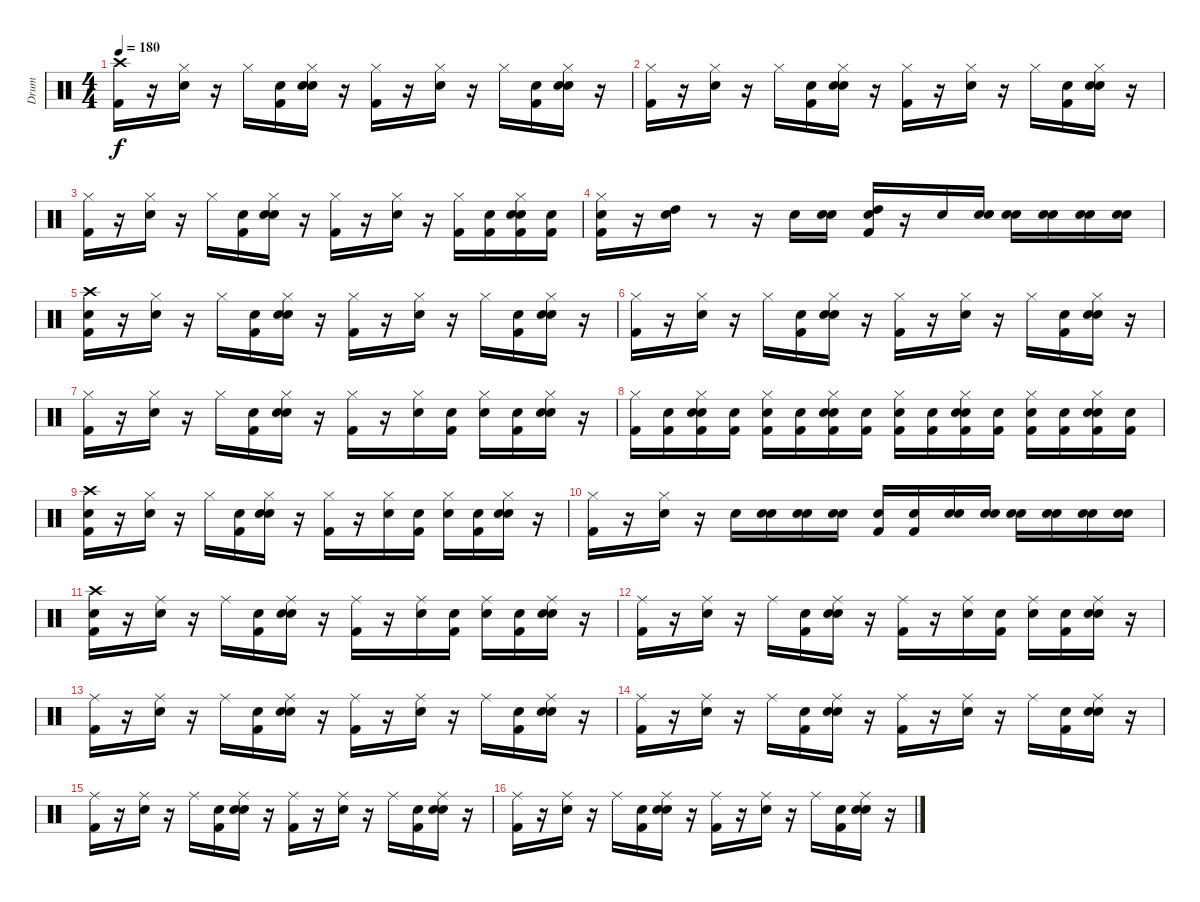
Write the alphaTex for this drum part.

\track ("Drum" "Drum") {instrument percussion}
\staff {score}
\articulation defaults
\ts (4 4)
\tempo 180
\clef neutral
\ks c
("Kick (hit) 2" "Crash high (hit)").16{dy f} r.16 ("Snare (hit) 2" "Hi-Hat (closed)").16 r.16 "Hi-Hat (closed)".16 ("Snare (hit)" "Kick (hit) 2").16 ("Snare (hit)" "Snare (hit) 2" "Hi-Hat (closed)").16 r.16 ("Kick (hit) 2" "Hi-Hat (closed)").16 r.16 ("Snare (hit) 2" "Hi-Hat (closed)").16 r.16 "Hi-Hat (closed)".16 ("Snare (hit)" "Kick (hit) 2").16 ("Snare (hit)" "Snare (hit) 2" "Hi-Hat (closed)").16 r.16 |
("Kick (hit) 2" "Hi-Hat (closed)").16 r.16 ("Snare (hit) 2" "Hi-Hat (closed)").16 r.16 "Hi-Hat (closed)".16 ("Snare (hit)" "Kick (hit) 2").16 ("Snare (hit)" "Snare (hit) 2" "Hi-Hat (closed)").16 r.16 ("Kick (hit) 2" "Hi-Hat (closed)").16 r.16 ("Snare (hit) 2" "Hi-Hat (closed)").16 r.16 "Hi-Hat (closed)".16 ("Snare (hit)" "Kick (hit) 2").16 ("Snare (hit)" "Snare (hit) 2" "Hi-Hat (closed)").16 r.16 |
("Kick (hit) 2" "Hi-Hat (closed)").16 r.16 ("Snare (hit) 2" "Hi-Hat (closed)").16 r.16 "Hi-Hat (closed)".16 ("Snare (hit)" "Kick (hit) 2").16 ("Snare (hit)" "Snare (hit) 2" "Hi-Hat (closed)").16 r.16 ("Kick (hit) 2" "Hi-Hat (closed)").16 r.16 ("Snare (hit) 2" "Hi-Hat (closed)").16 r.16 ("Kick (hit) 2" "Hi-Hat (closed)").16 ("Snare (hit)" "Kick (hit) 2").16 ("Snare (hit)" "Kick (hit) 2" "Snare (hit) 2" "Hi-Hat (closed)").16 ("Snare (hit)" "Kick (hit) 2").16 |
("Snare (hit)" "Kick (hit) 2" "Hi-Hat (closed)").16 r.16 ("Snare (hit) 2" "High Tom (hit)").16 r.8 r.16 "Snare (hit) 2".16 ("Snare (hit)" "Snare (hit) 2").16 ("Snare (hit)" "High Tom (hit)" "Kick (hit) 2").16 r.16 "Snare (hit) 2".16 ("Snare (hit)" "Snare (hit) 2").16 ("Snare (hit)" "Snare (hit) 2").16 ("Snare (hit)" "Snare (hit) 2").16 ("Snare (hit)" "Snare (hit) 2").16 ("Snare (hit)" "Snare (hit) 2").16 |
("Snare (hit)" "Kick (hit) 2" "Crash high (hit)").16 r.16 ("Snare (hit) 2" "Hi-Hat (closed)").16 r.16 "Hi-Hat (closed)".16 ("Snare (hit)" "Kick (hit) 2").16 ("Snare (hit)" "Snare (hit) 2" "Hi-Hat (closed)").16 r.16 ("Kick (hit) 2" "Hi-Hat (closed)").16 r.16 ("Snare (hit) 2" "Hi-Hat (closed)").16 r.16 "Hi-Hat (closed)".16 ("Snare (hit)" "Kick (hit) 2").16 ("Snare (hit)" "Snare (hit) 2" "Hi-Hat (closed)").16 r.16 |
("Kick (hit) 2" "Hi-Hat (closed)").16 r.16 ("Snare (hit) 2" "Hi-Hat (closed)").16 r.16 "Hi-Hat (closed)".16 ("Snare (hit)" "Kick (hit) 2").16 ("Snare (hit)" "Snare (hit) 2" "Hi-Hat (closed)").16 r.16 ("Kick (hit) 2" "Hi-Hat (closed)").16 r.16 ("Snare (hit) 2" "Hi-Hat (closed)").16 r.16 "Hi-Hat (closed)".16 ("Snare (hit)" "Kick (hit) 2").16 ("Snare (hit)" "Snare (hit) 2" "Hi-Hat (closed)").16 r.16 |
("Kick (hit) 2" "Hi-Hat (closed)").16 r.16 ("Snare (hit) 2" "Hi-Hat (closed)").16 r.16 "Hi-Hat (closed)".16 ("Snare (hit)" "Kick (hit) 2").16 ("Snare (hit)" "Snare (hit) 2" "Hi-Hat (closed)").16 r.16 ("Kick (hit) 2" "Hi-Hat (closed)").16 r.16 ("Snare (hit) 2" "Hi-Hat (closed)").16 ("Snare (hit)" "Kick (hit) 2").16 ("Snare (hit)" "Hi-Hat (closed)").16 ("Snare (hit)" "Kick (hit) 2").16 ("Snare (hit)" "Snare (hit) 2" "Hi-Hat (closed)").16 r.16 |
("Kick (hit) 2" "Hi-Hat (closed)").16 ("Snare (hit)" "Kick (hit) 2").16 ("Snare (hit)" "Snare (hit) 2" "Kick (hit) 2" "Hi-Hat (closed)").16 ("Snare (hit)" "Kick (hit) 2").16 ("Snare (hit)" "Kick (hit) 2" "Hi-Hat (closed)").16 ("Snare (hit)" "Kick (hit) 2").16 ("Snare (hit)" "Snare (hit) 2" "Kick (hit) 2" "Hi-Hat (closed)").16 ("Snare (hit)" "Kick (hit) 2").16 ("Snare (hit)" "Kick (hit) 2" "Hi-Hat (closed)").16 ("Snare (hit)" "Kick (hit) 2").16 ("Snare (hit)" "Snare (hit) 2" "Kick (hit) 2" "Hi-Hat (closed)").16 ("Snare (hit)" "Kick (hit) 2").16 ("Snare (hit)" "Kick (hit) 2" "Hi-Hat (closed)").16 ("Snare (hit)" "Kick (hit) 2").16 ("Snare (hit)" "Snare (hit) 2" "Kick (hit) 2" "Hi-Hat (closed)").16 ("Snare (hit)" "Kick (hit) 2").16 |
("Snare (hit)" "Crash high (hit)" "Kick (hit) 2").16 r.16 ("Snare (hit) 2" "Hi-Hat (closed)").16 r.16 "Hi-Hat (closed)".16 ("Snare (hit)" "Kick (hit) 2").16 ("Snare (hit)" "Snare (hit) 2" "Hi-Hat (closed)").16 r.16 ("Kick (hit) 2" "Hi-Hat (closed)").16 r.16 ("Snare (hit) 2" "Hi-Hat (closed)").16 ("Snare (hit)" "Kick (hit) 2").16 ("Snare (hit)" "Hi-Hat (closed)").16 ("Snare (hit)" "Kick (hit) 2").16 ("Snare (hit)" "Snare (hit) 2" "Hi-Hat (closed)").16 r.16 |
("Kick (hit) 2" "Hi-Hat (closed)").16 r.16 ("Snare (hit) 2" "Hi-Hat (closed)").16 r.16 "Snare (hit) 2".16 ("Snare (hit)" "Snare (hit) 2").16 ("Snare (hit)" "Snare (hit) 2").16 ("Snare (hit)" "Snare (hit) 2").16 ("Snare (hit)" "Kick (hit) 2").16 ("Snare (hit)" "Kick (hit) 2").16 ("Snare (hit)" "Snare (hit) 2").16 ("Snare (hit)" "Snare (hit) 2").16 ("Snare (hit)" "Snare (hit) 2").16 ("Snare (hit)" "Snare (hit) 2").16 ("Snare (hit)" "Snare (hit) 2").16 ("Snare (hit)" "Snare (hit) 2").16 |
("Snare (hit)" "Kick (hit) 2" "Crash high (hit)").16 r.16 ("Snare (hit) 2" "Ride (middle)").16 r.16 "Ride (middle)".16 ("Snare (hit)" "Kick (hit) 2").16 ("Snare (hit)" "Snare (hit) 2" "Ride (middle)").16 r.16 ("Kick (hit) 2" "Ride (middle)").16 r.16 ("Snare (hit) 2" "Ride (middle)").16 ("Snare (hit)" "Kick (hit) 2").16 ("Snare (hit)" "Ride (middle)").16 ("Snare (hit)" "Kick (hit) 2").16 ("Snare (hit)" "Snare (hit) 2" "Ride (middle)").16 r.16 |
("Kick (hit) 2" "Ride (middle)").16 r.16 ("Snare (hit) 2" "Ride (middle)").16 r.16 "Ride (middle)".16 ("Snare (hit)" "Kick (hit) 2").16 ("Snare (hit)" "Snare (hit) 2" "Ride (middle)").16 r.16 ("Kick (hit) 2" "Ride (middle)").16 r.16 ("Snare (hit) 2" "Ride (middle)").16 ("Snare (hit)" "Kick (hit) 2").16 ("Snare (hit)" "Ride (middle)").16 ("Snare (hit)" "Kick (hit) 2").16 ("Snare (hit)" "Snare (hit) 2" "Ride (middle)").16 r.16 |
("Kick (hit) 2" "Ride (middle)").16 r.16 ("Snare (hit) 2" "Ride (middle)").16 r.16 "Ride (middle)".16 ("Snare (hit)" "Kick (hit) 2").16 ("Snare (hit)" "Snare (hit) 2" "Ride (middle)").16 r.16 ("Kick (hit) 2" "Ride (middle)").16 r.16 ("Snare (hit) 2" "Ride (middle)").16 r.16 "Ride (middle)".16 ("Snare (hit)" "Kick (hit) 2").16 ("Snare (hit)" "Snare (hit) 2" "Ride (middle)").16 r.16 |
("Kick (hit) 2" "Ride (middle)").16 r.16 ("Snare (hit) 2" "Ride (middle)").16 r.16 "Ride (middle)".16 ("Snare (hit)" "Kick (hit) 2").16 ("Snare (hit)" "Snare (hit) 2" "Ride (middle)").16 r.16 ("Kick (hit) 2" "Ride (middle)").16 r.16 ("Snare (hit) 2" "Ride (middle)").16 r.16 "Ride (middle)".16 ("Snare (hit)" "Kick (hit) 2").16 ("Snare (hit)" "Snare (hit) 2" "Ride (middle)").16 r.16 |
("Kick (hit) 2" "Ride (middle)").16 r.16 ("Snare (hit) 2" "Ride (middle)").16 r.16 "Ride (middle)".16 ("Snare (hit)" "Kick (hit) 2").16 ("Snare (hit)" "Snare (hit) 2" "Ride (middle)").16 r.16 ("Kick (hit) 2" "Ride (middle)").16 r.16 ("Snare (hit) 2" "Ride (middle)").16 r.16 "Ride (middle)".16 ("Snare (hit)" "Kick (hit) 2").16 ("Snare (hit)" "Snare (hit) 2" "Ride (middle)").16 r.16 |
("Kick (hit) 2" "Ride (middle)").16 r.16 ("Snare (hit) 2" "Ride (middle)").16 r.16 "Ride (middle)".16 ("Snare (hit)" "Kick (hit) 2").16 ("Snare (hit)" "Snare (hit) 2" "Ride (middle)").16 r.16 ("Kick (hit) 2" "Ride (middle)").16 r.16 ("Snare (hit) 2" "Ride (middle)").16 r.16 "Ride (middle)".16 ("Snare (hit)" "Kick (hit) 2").16 ("Snare (hit)" "Snare (hit) 2" "Ride (middle)").16 r.16
